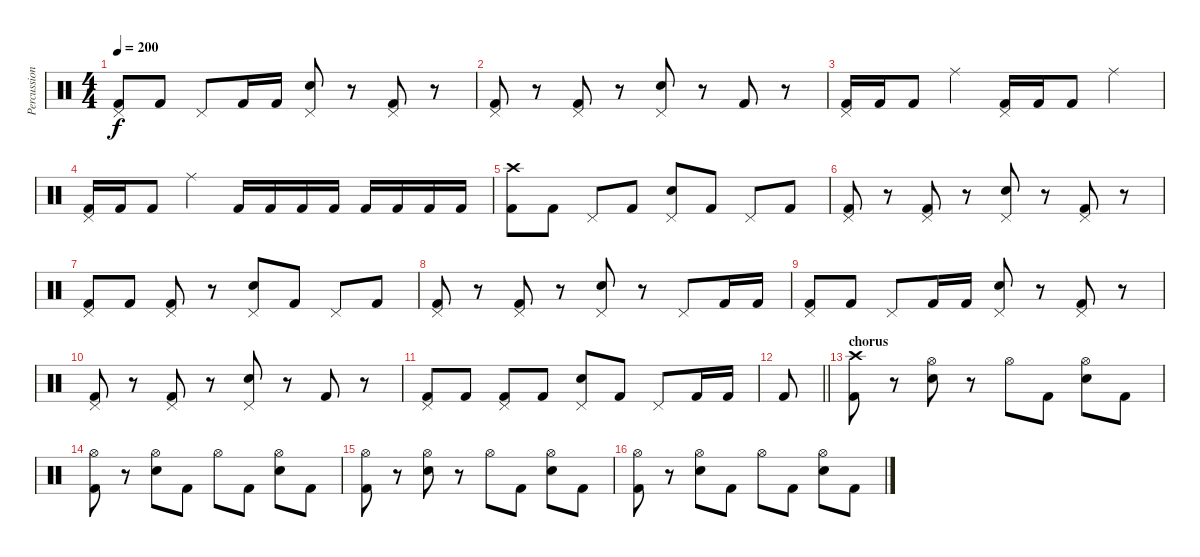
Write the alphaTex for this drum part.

\track ("Percussion" "Percussion") {instrument percussion}
\staff {score}
\articulation defaults
\ts (4 4)
\tempo 200
\clef neutral
\ks c
("Pedal Hi-Hat (hit)" "Kick (hit) 2").8{dy f} "Kick (hit) 2".8 "Pedal Hi-Hat (hit)".8 "Kick (hit) 2".16 "Kick (hit) 2".16 ("Pedal Hi-Hat (hit)" "Snare (hit) 2").8 r.8 ("Pedal Hi-Hat (hit)" "Kick (hit) 2").8 r.8 |
("Pedal Hi-Hat (hit)" "Kick (hit) 2").8 r.8 ("Pedal Hi-Hat (hit)" "Kick (hit) 2").8 r.8 ("Pedal Hi-Hat (hit)" "Snare (hit) 2").8 r.8 "Kick (hit) 2".8 r.8 |
("Pedal Hi-Hat (hit)" "Kick (hit) 2").16 "Kick (hit) 2".16 "Kick (hit) 2".8 "Ride (middle)".4 ("Pedal Hi-Hat (hit)" "Kick (hit) 2").16 "Kick (hit) 2".16 "Kick (hit) 2".8 "Ride (middle)".4 |
("Pedal Hi-Hat (hit)" "Kick (hit) 2").16 "Kick (hit) 2".16 "Kick (hit) 2".8 "Ride (middle)".4 "Kick (hit) 2".16 "Kick (hit) 2".16 "Kick (hit) 2".16 "Kick (hit) 2".16 "Kick (hit) 2".16 "Kick (hit) 2".16 "Kick (hit) 2".16 "Kick (hit) 2".16 |
("Crash high (hit)" "Kick (hit) 2").8 "Kick (hit) 2".8 "Pedal Hi-Hat (hit)".8 "Kick (hit) 2".8 ("Pedal Hi-Hat (hit)" "Snare (hit) 2").8 "Kick (hit) 2".8 "Pedal Hi-Hat (hit)".8 "Kick (hit) 2".8 |
("Pedal Hi-Hat (hit)" "Kick (hit) 2").8 r.8 ("Pedal Hi-Hat (hit)" "Kick (hit) 2").8 r.8 ("Pedal Hi-Hat (hit)" "Snare (hit) 2").8 r.8 ("Pedal Hi-Hat (hit)" "Kick (hit) 2").8 r.8 |
("Pedal Hi-Hat (hit)" "Kick (hit) 2").8 "Kick (hit) 2".8 ("Pedal Hi-Hat (hit)" "Kick (hit) 2").8 r.8 ("Pedal Hi-Hat (hit)" "Snare (hit) 2").8 "Kick (hit) 2".8 "Pedal Hi-Hat (hit)".8 "Kick (hit) 2".8 |
("Pedal Hi-Hat (hit)" "Kick (hit) 2").8 r.8 ("Pedal Hi-Hat (hit)" "Kick (hit) 2").8 r.8 ("Pedal Hi-Hat (hit)" "Snare (hit) 2").8 r.8 "Pedal Hi-Hat (hit)".8 "Kick (hit) 2".16 "Kick (hit) 2".16 |
("Pedal Hi-Hat (hit)" "Kick (hit) 2").8 "Kick (hit) 2".8 "Pedal Hi-Hat (hit)".8 "Kick (hit) 2".16 "Kick (hit) 2".16 ("Pedal Hi-Hat (hit)" "Snare (hit) 2").8 r.8 ("Pedal Hi-Hat (hit)" "Kick (hit) 2").8 r.8 |
("Pedal Hi-Hat (hit)" "Kick (hit) 2").8 r.8 ("Pedal Hi-Hat (hit)" "Kick (hit) 2").8 r.8 ("Pedal Hi-Hat (hit)" "Snare (hit) 2").8 r.8 "Kick (hit) 2".8 r.8 |
("Pedal Hi-Hat (hit)" "Kick (hit) 2").8 "Kick (hit) 2".8 ("Pedal Hi-Hat (hit)" "Kick (hit) 2").8 "Kick (hit) 2".8 ("Pedal Hi-Hat (hit)" "Snare (hit) 2").8 "Kick (hit) 2".8 "Pedal Hi-Hat (hit)".8 "Kick (hit) 2".16 "Kick (hit) 2".16 |
\barLineRight lightlight "Kick (hit) 2".8
|
\section ("" "chorus")
("Crash high (hit)" "Kick (hit) 2").8 r.8 ("Hi-Hat (open)" "Snare (hit) 2").8 r.8 "Hi-Hat (open)".8 "Kick (hit) 2".8 ("Hi-Hat (open)" "Snare (hit) 2").8 "Kick (hit) 2".8 |
("Hi-Hat (open)" "Kick (hit) 2").8 r.8 ("Hi-Hat (open)" "Snare (hit) 2").8 "Kick (hit) 2".8 "Hi-Hat (open)".8 "Kick (hit) 2".8 ("Hi-Hat (open)" "Snare (hit) 2").8 "Kick (hit) 2".8 |
("Hi-Hat (open)" "Kick (hit) 2").8 r.8 ("Hi-Hat (open)" "Snare (hit) 2").8 r.8 "Hi-Hat (open)".8 "Kick (hit) 2".8 ("Hi-Hat (open)" "Snare (hit) 2").8 "Kick (hit) 2".8 |
("Hi-Hat (open)" "Kick (hit) 2").8 r.8 ("Hi-Hat (open)" "Snare (hit) 2").8 "Kick (hit) 2".8 "Hi-Hat (open)".8 "Kick (hit) 2".8 ("Hi-Hat (open)" "Snare (hit) 2").8 "Kick (hit) 2".8
